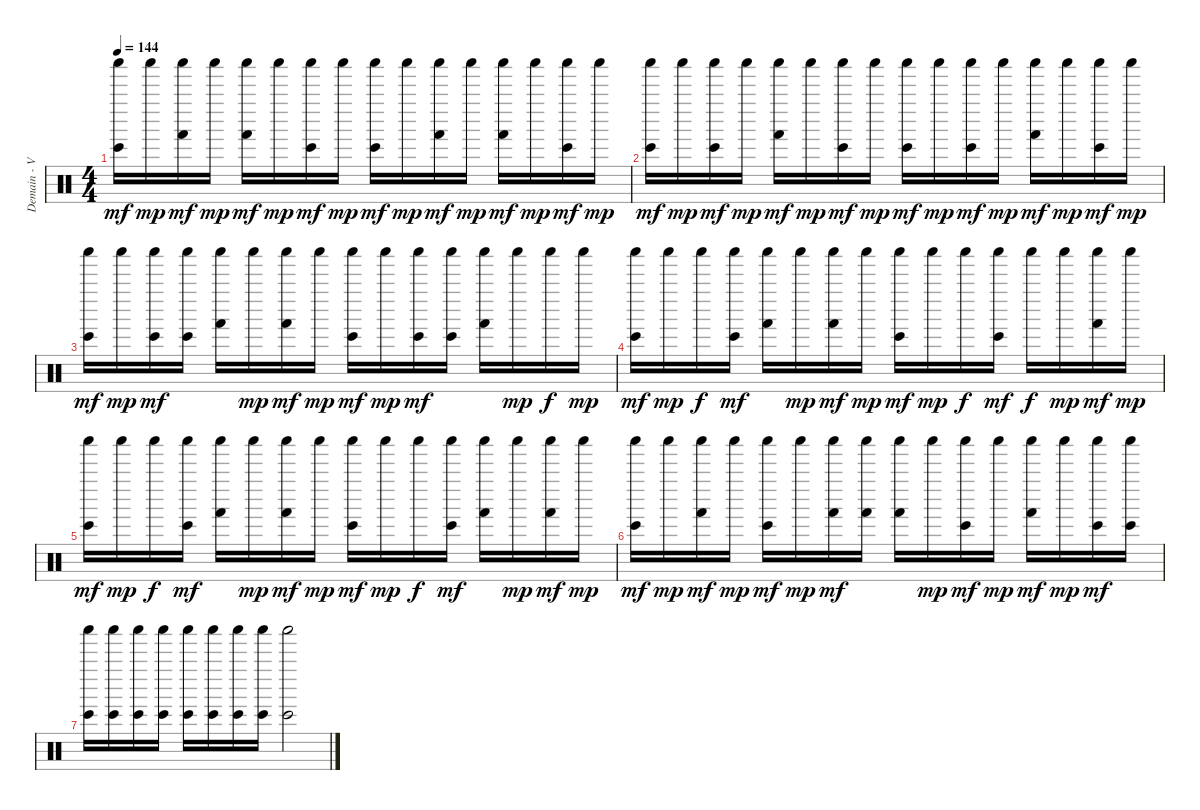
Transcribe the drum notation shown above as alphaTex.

\track ("Demain - Various Perc." "Demain - V") {instrument percussion}
\staff {score}
\articulation defaults
\ts (4 4)
\tempo 144
\clef neutral
\ks c
("Shaker (hit)" "Bongo High (hit)").16{dy mf} "Shaker (hit)".16{dy mp} ("Shaker (hit)" "Hand (hit)").16{dy mf} "Shaker (hit)".16{dy mp} ("Shaker (hit)" "Hand (hit)").16{dy mf} "Shaker (hit)".16{dy mp} ("Shaker (hit)" "Bongo High (hit)").16{dy mf} "Shaker (hit)".16{dy mp} ("Shaker (hit)" "Bongo High (hit)").16{dy mf} "Shaker (hit)".16{dy mp} ("Shaker (hit)" "Hand (hit)").16{dy mf} "Shaker (hit)".16{dy mp} ("Shaker (hit)" "Hand (hit)").16{dy mf} "Shaker (hit)".16{dy mp} ("Shaker (hit)" "Bongo High (hit)").16{dy mf} "Shaker (hit)".16{dy mp} |
("Shaker (hit)" "Bongo High (hit)").16{dy mf} "Shaker (hit)".16{dy mp} ("Shaker (hit)" "Bongo High (hit)").16{dy mf} "Shaker (hit)".16{dy mp} ("Shaker (hit)" "Hand (hit)").16{dy mf} "Shaker (hit)".16{dy mp} ("Shaker (hit)" "Bongo High (hit)").16{dy mf} "Shaker (hit)".16{dy mp} ("Shaker (hit)" "Bongo High (hit)").16{dy mf} "Shaker (hit)".16{dy mp} ("Shaker (hit)" "Bongo High (hit)").16{dy mf} "Shaker (hit)".16{dy mp} ("Shaker (hit)" "Hand (hit)").16{dy mf} "Shaker (hit)".16{dy mp} ("Shaker (hit)" "Bongo High (hit)").16{dy mf} "Shaker (hit)".16{dy mp} |
("Shaker (hit)" "Bongo High (hit)").16{dy mf} "Shaker (hit)".16{dy mp} ("Shaker (hit)" "Bongo High (hit)").16{dy mf} ("Shaker (hit)" "Bongo High (hit)").16 ("Shaker (hit)" "Hand (hit)").16 "Shaker (hit)".16{dy mp} ("Shaker (hit)" "Hand (hit)").16{dy mf} "Shaker (hit)".16{dy mp} ("Shaker (hit)" "Bongo High (hit)").16{dy mf} "Shaker (hit)".16{dy mp} ("Shaker (hit)" "Bongo High (hit)").16{dy mf} ("Shaker (hit)" "Bongo High (hit)").16 ("Shaker (hit)" "Hand (hit)").16 "Shaker (hit)".16{dy mp} "Shaker (hit)".16{dy f} "Shaker (hit)".16{dy mp} |
("Shaker (hit)" "Bongo High (hit)").16{dy mf} "Shaker (hit)".16{dy mp} "Shaker (hit)".16{dy f} ("Shaker (hit)" "Bongo High (hit)").16{dy mf} ("Shaker (hit)" "Hand (hit)").16 "Shaker (hit)".16{dy mp} ("Shaker (hit)" "Hand (hit)").16{dy mf} "Shaker (hit)".16{dy mp} ("Shaker (hit)" "Bongo High (hit)").16{dy mf} "Shaker (hit)".16{dy mp} "Shaker (hit)".16{dy f} ("Shaker (hit)" "Bongo High (hit)").16{dy mf} "Shaker (hit)".16{dy f} "Shaker (hit)".16{dy mp} ("Shaker (hit)" "Hand (hit)").16{dy mf} "Shaker (hit)".16{dy mp} |
("Shaker (hit)" "Bongo High (hit)").16{dy mf} "Shaker (hit)".16{dy mp} "Shaker (hit)".16{dy f} ("Shaker (hit)" "Bongo High (hit)").16{dy mf} ("Shaker (hit)" "Hand (hit)").16 "Shaker (hit)".16{dy mp} ("Shaker (hit)" "Hand (hit)").16{dy mf} "Shaker (hit)".16{dy mp} ("Shaker (hit)" "Bongo High (hit)").16{dy mf} "Shaker (hit)".16{dy mp} "Shaker (hit)".16{dy f} ("Shaker (hit)" "Bongo High (hit)").16{dy mf} ("Shaker (hit)" "Hand (hit)").16 "Shaker (hit)".16{dy mp} ("Shaker (hit)" "Hand (hit)").16{dy mf} "Shaker (hit)".16{dy mp} |
("Shaker (hit)" "Bongo High (hit)").16{dy mf} "Shaker (hit)".16{dy mp} ("Shaker (hit)" "Hand (hit)").16{dy mf} "Shaker (hit)".16{dy mp} ("Shaker (hit)" "Bongo High (hit)").16{dy mf} "Shaker (hit)".16{dy mp} ("Shaker (hit)" "Hand (hit)").16{dy mf} ("Shaker (hit)" "Hand (hit)").16 ("Shaker (hit)" "Hand (hit)").16 "Shaker (hit)".16{dy mp} ("Shaker (hit)" "Bongo High (hit)").16{dy mf} "Shaker (hit)".16{dy mp} ("Shaker (hit)" "Hand (hit)").16{dy mf} "Shaker (hit)".16{dy mp} ("Shaker (hit)" "Bongo High (hit)").16{dy mf} ("Shaker (hit)" "Bongo High (hit)").16 |
("Shaker (hit)" "Bongo High (hit)").16 ("Shaker (hit)" "Bongo High (hit)").16 ("Shaker (hit)" "Bongo High (hit)").16 ("Shaker (hit)" "Bongo High (hit)").16 ("Shaker (hit)" "Bongo High (hit)").16 ("Shaker (hit)" "Bongo High (hit)").16 ("Shaker (hit)" "Bongo High (hit)").16 ("Shaker (hit)" "Bongo High (hit)").16 ("Shaker (hit)" "Bongo High (hit)").2
